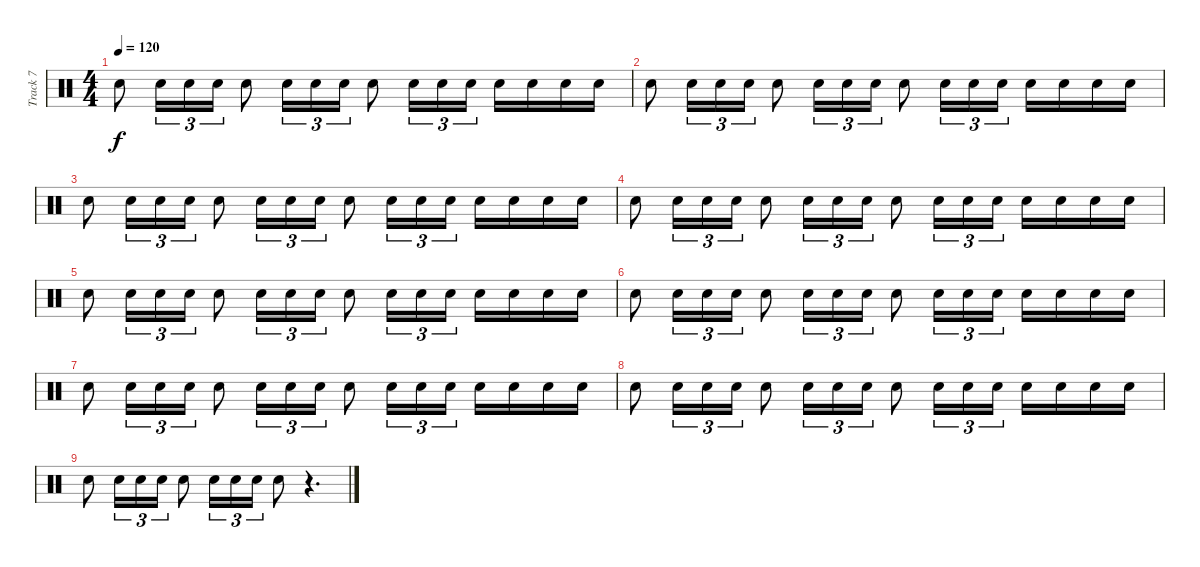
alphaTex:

\track ("Track 7" "Track 7") {instrument percussion}
\staff {score}
\articulation defaults
\ts (4 4)
\tempo 120
\clef neutral
\ks c "Snare (hit) 2".8{dy f} "Snare (hit) 2".16{tu (3 2)} "Snare (hit) 2".16{tu (3 2)} "Snare (hit) 2".16{tu (3 2)} "Snare (hit) 2".8 "Snare (hit) 2".16{tu (3 2)} "Snare (hit) 2".16{tu (3 2)} "Snare (hit) 2".16{tu (3 2)} "Snare (hit) 2".8 "Snare (hit) 2".16{tu (3 2)} "Snare (hit) 2".16{tu (3 2)} "Snare (hit) 2".16{tu (3 2)} "Snare (hit) 2".16 "Snare (hit) 2".16 "Snare (hit) 2".16 "Snare (hit) 2".16
|
"Snare (hit) 2".8 "Snare (hit) 2".16{tu (3 2)} "Snare (hit) 2".16{tu (3 2)} "Snare (hit) 2".16{tu (3 2)} "Snare (hit) 2".8 "Snare (hit) 2".16{tu (3 2)} "Snare (hit) 2".16{tu (3 2)} "Snare (hit) 2".16{tu (3 2)} "Snare (hit) 2".8 "Snare (hit) 2".16{tu (3 2)} "Snare (hit) 2".16{tu (3 2)} "Snare (hit) 2".16{tu (3 2)} "Snare (hit) 2".16 "Snare (hit) 2".16 "Snare (hit) 2".16 "Snare (hit) 2".16 |
"Snare (hit) 2".8 "Snare (hit) 2".16{tu (3 2)} "Snare (hit) 2".16{tu (3 2)} "Snare (hit) 2".16{tu (3 2)} "Snare (hit) 2".8 "Snare (hit) 2".16{tu (3 2)} "Snare (hit) 2".16{tu (3 2)} "Snare (hit) 2".16{tu (3 2)} "Snare (hit) 2".8 "Snare (hit) 2".16{tu (3 2)} "Snare (hit) 2".16{tu (3 2)} "Snare (hit) 2".16{tu (3 2)} "Snare (hit) 2".16 "Snare (hit) 2".16 "Snare (hit) 2".16 "Snare (hit) 2".16 |
"Snare (hit) 2".8 "Snare (hit) 2".16{tu (3 2)} "Snare (hit) 2".16{tu (3 2)} "Snare (hit) 2".16{tu (3 2)} "Snare (hit) 2".8 "Snare (hit) 2".16{tu (3 2)} "Snare (hit) 2".16{tu (3 2)} "Snare (hit) 2".16{tu (3 2)} "Snare (hit) 2".8 "Snare (hit) 2".16{tu (3 2)} "Snare (hit) 2".16{tu (3 2)} "Snare (hit) 2".16{tu (3 2)} "Snare (hit) 2".16 "Snare (hit) 2".16 "Snare (hit) 2".16 "Snare (hit) 2".16 |
"Snare (hit) 2".8 "Snare (hit) 2".16{tu (3 2)} "Snare (hit) 2".16{tu (3 2)} "Snare (hit) 2".16{tu (3 2)} "Snare (hit) 2".8 "Snare (hit) 2".16{tu (3 2)} "Snare (hit) 2".16{tu (3 2)} "Snare (hit) 2".16{tu (3 2)} "Snare (hit) 2".8 "Snare (hit) 2".16{tu (3 2)} "Snare (hit) 2".16{tu (3 2)} "Snare (hit) 2".16{tu (3 2)} "Snare (hit) 2".16 "Snare (hit) 2".16 "Snare (hit) 2".16 "Snare (hit) 2".16 |
"Snare (hit) 2".8 "Snare (hit) 2".16{tu (3 2)} "Snare (hit) 2".16{tu (3 2)} "Snare (hit) 2".16{tu (3 2)} "Snare (hit) 2".8 "Snare (hit) 2".16{tu (3 2)} "Snare (hit) 2".16{tu (3 2)} "Snare (hit) 2".16{tu (3 2)} "Snare (hit) 2".8 "Snare (hit) 2".16{tu (3 2)} "Snare (hit) 2".16{tu (3 2)} "Snare (hit) 2".16{tu (3 2)} "Snare (hit) 2".16 "Snare (hit) 2".16 "Snare (hit) 2".16 "Snare (hit) 2".16 |
"Snare (hit) 2".8 "Snare (hit) 2".16{tu (3 2)} "Snare (hit) 2".16{tu (3 2)} "Snare (hit) 2".16{tu (3 2)} "Snare (hit) 2".8 "Snare (hit) 2".16{tu (3 2)} "Snare (hit) 2".16{tu (3 2)} "Snare (hit) 2".16{tu (3 2)} "Snare (hit) 2".8 "Snare (hit) 2".16{tu (3 2)} "Snare (hit) 2".16{tu (3 2)} "Snare (hit) 2".16{tu (3 2)} "Snare (hit) 2".16 "Snare (hit) 2".16 "Snare (hit) 2".16 "Snare (hit) 2".16 |
"Snare (hit) 2".8 "Snare (hit) 2".16{tu (3 2)} "Snare (hit) 2".16{tu (3 2)} "Snare (hit) 2".16{tu (3 2)} "Snare (hit) 2".8 "Snare (hit) 2".16{tu (3 2)} "Snare (hit) 2".16{tu (3 2)} "Snare (hit) 2".16{tu (3 2)} "Snare (hit) 2".8 "Snare (hit) 2".16{tu (3 2)} "Snare (hit) 2".16{tu (3 2)} "Snare (hit) 2".16{tu (3 2)} "Snare (hit) 2".16 "Snare (hit) 2".16 "Snare (hit) 2".16 "Snare (hit) 2".16 |
"Snare (hit) 2".8 "Snare (hit) 2".16{tu (3 2)} "Snare (hit) 2".16{tu (3 2)} "Snare (hit) 2".16{tu (3 2)} "Snare (hit) 2".8 "Snare (hit) 2".16{tu (3 2)} "Snare (hit) 2".16{tu (3 2)} "Snare (hit) 2".16{tu (3 2)} "Snare (hit) 2".8 r.4{d}
